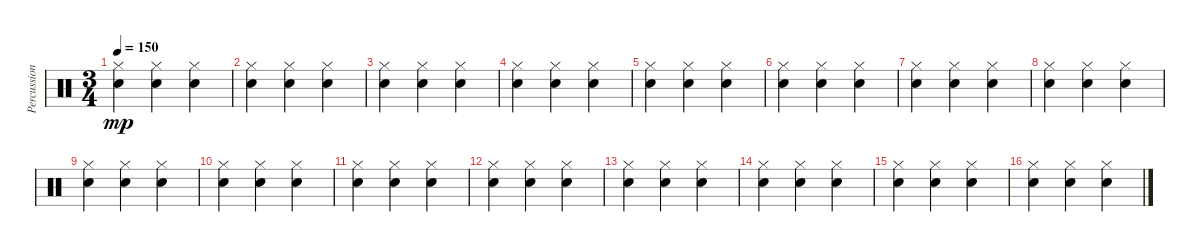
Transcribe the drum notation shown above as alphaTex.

\track ("Percussion" "Percussion") {instrument percussion}
\staff {score}
\articulation defaults
\ts (3 4)
\tempo 150
\clef neutral
\ks c
("Hi-Hat (closed)" "Electric Snare (hit)").4{dy mp} ("Hi-Hat (closed)" "Electric Snare (hit)").4 ("Hi-Hat (closed)" "Electric Snare (hit)").4 |
("Hi-Hat (closed)" "Electric Snare (hit)").4 ("Hi-Hat (closed)" "Electric Snare (hit)").4 ("Hi-Hat (closed)" "Electric Snare (hit)").4 |
("Hi-Hat (closed)" "Electric Snare (hit)").4 ("Hi-Hat (closed)" "Electric Snare (hit)").4 ("Hi-Hat (closed)" "Electric Snare (hit)").4 |
("Hi-Hat (closed)" "Electric Snare (hit)").4 ("Hi-Hat (closed)" "Electric Snare (hit)").4 ("Hi-Hat (closed)" "Electric Snare (hit)").4 |
("Hi-Hat (closed)" "Electric Snare (hit)").4 ("Hi-Hat (closed)" "Electric Snare (hit)").4 ("Hi-Hat (closed)" "Electric Snare (hit)").4 |
("Hi-Hat (closed)" "Electric Snare (hit)").4 ("Hi-Hat (closed)" "Electric Snare (hit)").4 ("Hi-Hat (closed)" "Electric Snare (hit)").4 |
("Hi-Hat (closed)" "Electric Snare (hit)").4 ("Hi-Hat (closed)" "Electric Snare (hit)").4 ("Hi-Hat (closed)" "Electric Snare (hit)").4 |
("Hi-Hat (closed)" "Electric Snare (hit)").4 ("Hi-Hat (closed)" "Electric Snare (hit)").4 ("Hi-Hat (closed)" "Electric Snare (hit)").4 |
("Hi-Hat (closed)" "Electric Snare (hit)").4 ("Hi-Hat (closed)" "Electric Snare (hit)").4 ("Hi-Hat (closed)" "Electric Snare (hit)").4 |
("Hi-Hat (closed)" "Electric Snare (hit)").4 ("Hi-Hat (closed)" "Electric Snare (hit)").4 ("Hi-Hat (closed)" "Electric Snare (hit)").4 |
("Hi-Hat (closed)" "Electric Snare (hit)").4 ("Hi-Hat (closed)" "Electric Snare (hit)").4 ("Hi-Hat (closed)" "Electric Snare (hit)").4 |
("Hi-Hat (closed)" "Electric Snare (hit)").4 ("Hi-Hat (closed)" "Electric Snare (hit)").4 ("Hi-Hat (closed)" "Electric Snare (hit)").4 |
("Hi-Hat (closed)" "Electric Snare (hit)").4 ("Hi-Hat (closed)" "Electric Snare (hit)").4 ("Hi-Hat (closed)" "Electric Snare (hit)").4 |
("Hi-Hat (closed)" "Electric Snare (hit)").4 ("Hi-Hat (closed)" "Electric Snare (hit)").4 ("Hi-Hat (closed)" "Electric Snare (hit)").4 |
("Hi-Hat (closed)" "Electric Snare (hit)").4 ("Hi-Hat (closed)" "Electric Snare (hit)").4 ("Hi-Hat (closed)" "Electric Snare (hit)").4 |
("Hi-Hat (closed)" "Electric Snare (hit)").4 ("Hi-Hat (closed)" "Electric Snare (hit)").4 ("Hi-Hat (closed)" "Electric Snare (hit)").4
